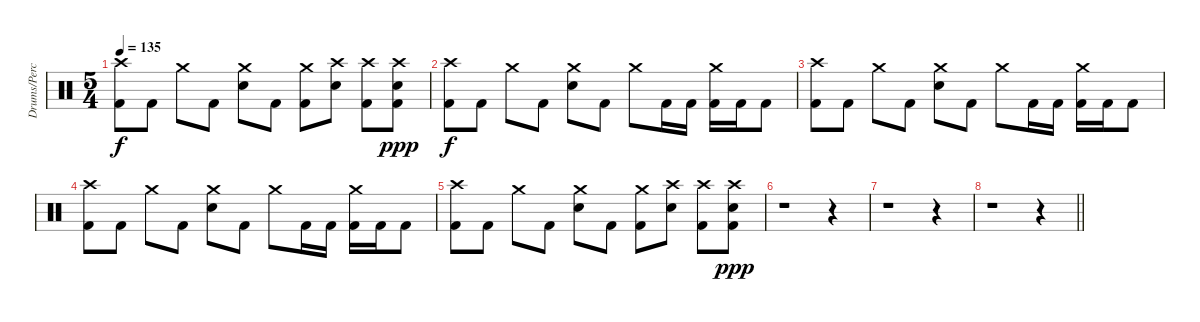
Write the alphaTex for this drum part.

\track ("Drums/Percussion" "Drums/Perc") {instrument percussion}
\staff {score}
\articulation defaults
\ts (5 4)
\tempo 135
\clef neutral
\ks c
("Crash high (hit)" "Kick (hit) 2").8{dy f} "Kick (hit) 2".8 "Crash medium (hit)".8 "Kick (hit) 2".8 ("Crash medium (hit)" "Snare (hit) 2").8 "Kick (hit) 2".8 ("Crash medium (hit)" "Kick (hit) 2").8 ("Crash high (hit)" "Snare (hit) 2").8 ("Crash high (hit)" "Kick (hit) 2").8 ("Crash high (hit)" "Snare (hit)"{x} "Kick (hit) 2").8{dy ppp} |
("Crash high (hit)" "Kick (hit) 2").8{dy f} "Kick (hit) 2".8 "Crash medium (hit)".8 "Kick (hit) 2".8 ("Crash medium (hit)" "Snare (hit) 2").8 "Kick (hit) 2".8 "Crash medium (hit)".8 "Kick (hit) 2".16 "Kick (hit) 2".16 ("Crash medium (hit)" "Kick (hit) 2").16 "Kick (hit) 2".16 "Kick (hit) 2".8 |
("Crash high (hit)" "Kick (hit) 2").8 "Kick (hit) 2".8 "Crash medium (hit)".8 "Kick (hit) 2".8 ("Crash medium (hit)" "Snare (hit) 2").8 "Kick (hit) 2".8 "Crash medium (hit)".8 "Kick (hit) 2".16 "Kick (hit) 2".16 ("Crash medium (hit)" "Kick (hit) 2").16 "Kick (hit) 2".16 "Kick (hit) 2".8 |
("Crash high (hit)" "Kick (hit) 2").8 "Kick (hit) 2".8 "Crash medium (hit)".8 "Kick (hit) 2".8 ("Crash medium (hit)" "Snare (hit) 2").8 "Kick (hit) 2".8 "Crash medium (hit)".8 "Kick (hit) 2".16 "Kick (hit) 2".16 ("Crash medium (hit)" "Kick (hit) 2").16 "Kick (hit) 2".16 "Kick (hit) 2".8 |
("Crash high (hit)" "Kick (hit) 2").8 "Kick (hit) 2".8 "Crash medium (hit)".8 "Kick (hit) 2".8 ("Crash medium (hit)" "Snare (hit) 2").8 "Kick (hit) 2".8 ("Crash medium (hit)" "Kick (hit) 2").8 ("Crash high (hit)" "Snare (hit) 2").8 ("Crash high (hit)" "Kick (hit) 2").8 ("Crash high (hit)" "Snare (hit)"{x} "Kick (hit) 2").8{dy ppp} |
r.1 r.4 |
r.1 r.4 |
\barLineRight lightlight
r.1 r.4
